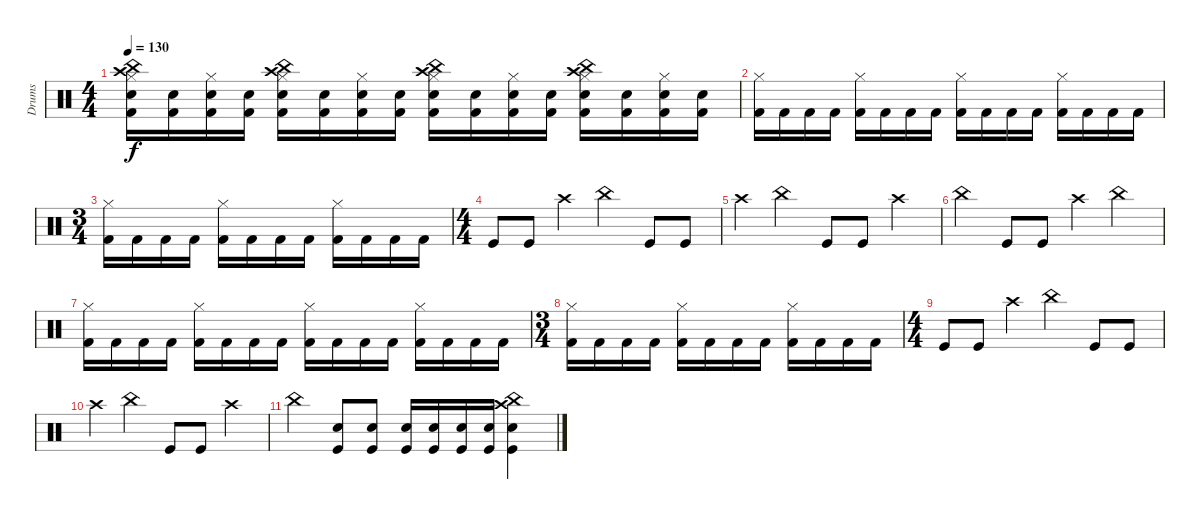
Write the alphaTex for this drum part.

\track ("Drums" "Drums") {instrument percussion}
\staff {score}
\articulation defaults
\ts (4 4)
\tempo 130
\clef neutral
\ks c
("Hi-Hat (closed)" "Crash high (hit)" "Electric Snare (hit)" "China (hit)" "Kick (hit) 2").16{dy f} ("Electric Snare (hit)" "Kick (hit) 2").16 ("Hi-Hat (closed)" "Electric Snare (hit)" "Kick (hit) 2").16 ("Electric Snare (hit)" "Kick (hit) 2").16 ("Hi-Hat (closed)" "Crash high (hit)" "Electric Snare (hit)" "China (hit)" "Kick (hit) 2").16 ("Electric Snare (hit)" "Kick (hit) 2").16 ("Hi-Hat (closed)" "Electric Snare (hit)" "Kick (hit) 2").16 ("Electric Snare (hit)" "Kick (hit) 2").16 ("Hi-Hat (closed)" "Crash high (hit)" "Electric Snare (hit)" "China (hit)" "Kick (hit) 2").16 ("Electric Snare (hit)" "Kick (hit) 2").16 ("Hi-Hat (closed)" "Electric Snare (hit)" "Kick (hit) 2").16 ("Electric Snare (hit)" "Kick (hit) 2").16 ("Hi-Hat (closed)" "Crash high (hit)" "Electric Snare (hit)" "China (hit)" "Kick (hit) 2").16 ("Electric Snare (hit)" "Kick (hit) 2").16 ("Hi-Hat (closed)" "Electric Snare (hit)" "Kick (hit) 2").16 ("Electric Snare (hit)" "Kick (hit) 2").16 |
("Hi-Hat (closed)" "Kick (hit) 2").16 "Kick (hit) 2".16 "Kick (hit) 2".16 "Kick (hit) 2".16 ("Hi-Hat (closed)" "Kick (hit) 2").16 "Kick (hit) 2".16 "Kick (hit) 2".16 "Kick (hit) 2".16 ("Hi-Hat (closed)" "Kick (hit) 2").16 "Kick (hit) 2".16 "Kick (hit) 2".16 "Kick (hit) 2".16 ("Hi-Hat (closed)" "Kick (hit) 2").16 "Kick (hit) 2".16 "Kick (hit) 2".16 "Kick (hit) 2".16 |
\ts (3 4)
("Hi-Hat (closed)" "Kick (hit) 2").16 "Kick (hit) 2".16 "Kick (hit) 2".16 "Kick (hit) 2".16 ("Hi-Hat (closed)" "Kick (hit) 2").16 "Kick (hit) 2".16 "Kick (hit) 2".16 "Kick (hit) 2".16 ("Hi-Hat (closed)" "Kick (hit) 2").16 "Kick (hit) 2".16 "Kick (hit) 2".16 "Kick (hit) 2".16 |
\ts (4 4)
"Kick (hit)".8 "Kick (hit)".8 "Crash high (hit)".4{balance 0} "China (hit)".4{balance 16} "Kick (hit)".8{balance 8} "Kick (hit)".8 |
"Crash high (hit)".4{balance 0} "China (hit)".4{balance 16} "Kick (hit)".8{balance 8} "Kick (hit)".8 "Crash high (hit)".4{balance 0} |
"China (hit)".4{balance 16} "Kick (hit)".8{balance 8} "Kick (hit)".8 "Crash high (hit)".4{balance 0} "China (hit)".4{balance 16} |
("Hi-Hat (closed)" "Kick (hit) 2").16{balance 8} "Kick (hit) 2".16 "Kick (hit) 2".16 "Kick (hit) 2".16 ("Hi-Hat (closed)" "Kick (hit) 2").16 "Kick (hit) 2".16 "Kick (hit) 2".16 "Kick (hit) 2".16 ("Hi-Hat (closed)" "Kick (hit) 2").16 "Kick (hit) 2".16 "Kick (hit) 2".16 "Kick (hit) 2".16 ("Hi-Hat (closed)" "Kick (hit) 2").16 "Kick (hit) 2".16 "Kick (hit) 2".16 "Kick (hit) 2".16 |
\ts (3 4)
("Hi-Hat (closed)" "Kick (hit) 2").16 "Kick (hit) 2".16 "Kick (hit) 2".16 "Kick (hit) 2".16 ("Hi-Hat (closed)" "Kick (hit) 2").16 "Kick (hit) 2".16 "Kick (hit) 2".16 "Kick (hit) 2".16 ("Hi-Hat (closed)" "Kick (hit) 2").16 "Kick (hit) 2".16 "Kick (hit) 2".16 "Kick (hit) 2".16 |
\ts (4 4)
"Kick (hit)".8 "Kick (hit)".8 "Crash high (hit)".4{balance 16} "China (hit)".4{balance 0} "Kick (hit)".8{balance 8} "Kick (hit)".8 |
"Crash high (hit)".4{balance 0} "China (hit)".4{balance 16} "Kick (hit)".8{balance 8} "Kick (hit)".8 "Crash high (hit)".4{balance 0} |
"China (hit)".4{balance 16} ("Electric Snare (hit)" "Kick (hit)").8{balance 8} ("Electric Snare (hit)" "Kick (hit)").8 ("Electric Snare (hit)" "Kick (hit)").16 ("Electric Snare (hit)" "Kick (hit)").16 ("Electric Snare (hit)" "Kick (hit)").16 ("Electric Snare (hit)" "Kick (hit)").16 ("Crash high (hit)" "China (hit)" "Electric Snare (hit)" "Kick (hit)").4
